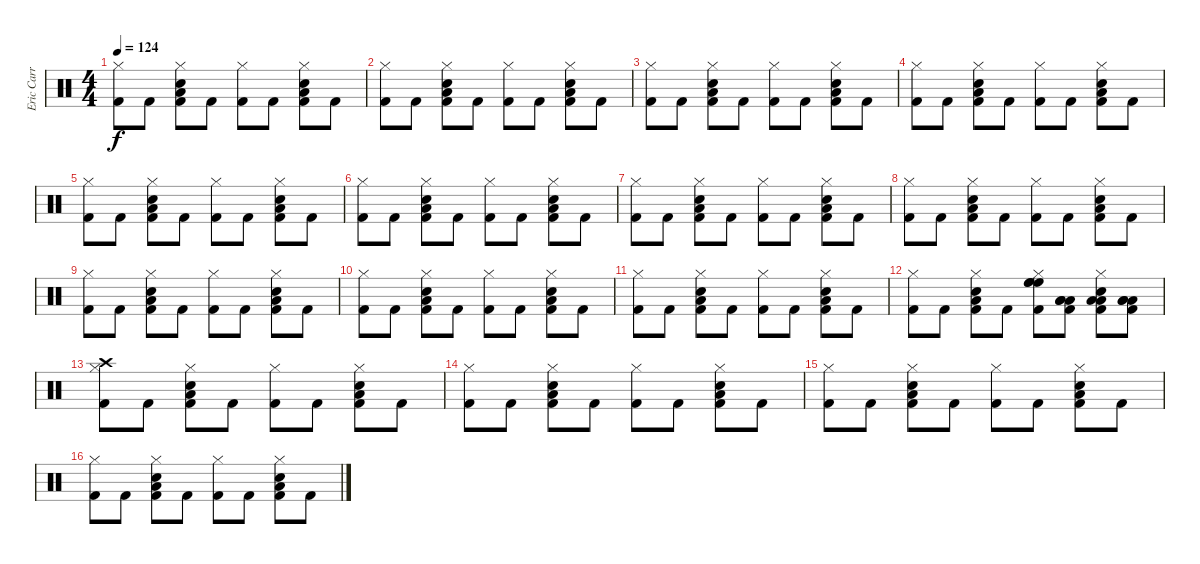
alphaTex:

\track ("Eric Carr" "Eric Carr") {instrument percussion}
\staff {score}
\articulation defaults
\ts (4 4)
\tempo 124
\clef neutral
\ks c
("Hi-Hat (closed)" "Kick (hit) 2").8{dy f} "Kick (hit) 2".8 ("Hi-Hat (closed)" "Snare (hit) 2" "Low Floor Tom (hit)" "Kick (hit) 2").8 "Kick (hit) 2".8 ("Hi-Hat (closed)" "Kick (hit) 2").8 "Kick (hit) 2".8 ("Hi-Hat (closed)" "Snare (hit) 2" "Low Floor Tom (hit)" "Kick (hit) 2").8 "Kick (hit) 2".8 |
("Hi-Hat (closed)" "Kick (hit) 2").8 "Kick (hit) 2".8 ("Hi-Hat (closed)" "Snare (hit) 2" "Low Floor Tom (hit)" "Kick (hit) 2").8 "Kick (hit) 2".8 ("Hi-Hat (closed)" "Kick (hit) 2").8 "Kick (hit) 2".8 ("Hi-Hat (closed)" "Snare (hit) 2" "Low Floor Tom (hit)" "Kick (hit) 2").8 "Kick (hit) 2".8 |
("Hi-Hat (closed)" "Kick (hit) 2").8 "Kick (hit) 2".8 ("Hi-Hat (closed)" "Snare (hit) 2" "Low Floor Tom (hit)" "Kick (hit) 2").8 "Kick (hit) 2".8 ("Hi-Hat (closed)" "Kick (hit) 2").8 "Kick (hit) 2".8 ("Hi-Hat (closed)" "Snare (hit) 2" "Low Floor Tom (hit)" "Kick (hit) 2").8 "Kick (hit) 2".8 |
("Hi-Hat (closed)" "Kick (hit) 2").8 "Kick (hit) 2".8 ("Hi-Hat (closed)" "Snare (hit) 2" "Low Floor Tom (hit)" "Kick (hit) 2").8 "Kick (hit) 2".8 ("Hi-Hat (closed)" "Kick (hit) 2").8 "Kick (hit) 2".8 ("Hi-Hat (closed)" "Snare (hit) 2" "Low Floor Tom (hit)" "Kick (hit) 2").8 "Kick (hit) 2".8 |
("Hi-Hat (closed)" "Kick (hit) 2").8 "Kick (hit) 2".8 ("Hi-Hat (closed)" "Snare (hit) 2" "Low Floor Tom (hit)" "Kick (hit) 2").8 "Kick (hit) 2".8 ("Hi-Hat (closed)" "Kick (hit) 2").8 "Kick (hit) 2".8 ("Hi-Hat (closed)" "Snare (hit) 2" "Low Floor Tom (hit)" "Kick (hit) 2").8 "Kick (hit) 2".8 |
("Hi-Hat (closed)" "Kick (hit) 2").8 "Kick (hit) 2".8 ("Hi-Hat (closed)" "Snare (hit) 2" "Low Floor Tom (hit)" "Kick (hit) 2").8 "Kick (hit) 2".8 ("Hi-Hat (closed)" "Kick (hit) 2").8 "Kick (hit) 2".8 ("Hi-Hat (closed)" "Snare (hit) 2" "Low Floor Tom (hit)" "Kick (hit) 2").8 "Kick (hit) 2".8 |
("Hi-Hat (closed)" "Kick (hit) 2").8 "Kick (hit) 2".8 ("Hi-Hat (closed)" "Snare (hit) 2" "Low Floor Tom (hit)" "Kick (hit) 2").8 "Kick (hit) 2".8 ("Hi-Hat (closed)" "Kick (hit) 2").8 "Kick (hit) 2".8 ("Hi-Hat (closed)" "Snare (hit) 2" "Low Floor Tom (hit)" "Kick (hit) 2").8 "Kick (hit) 2".8 |
("Hi-Hat (closed)" "Kick (hit) 2").8 "Kick (hit) 2".8 ("Hi-Hat (closed)" "Snare (hit) 2" "Low Floor Tom (hit)" "Kick (hit) 2").8 "Kick (hit) 2".8 ("Hi-Hat (closed)" "Kick (hit) 2").8 "Kick (hit) 2".8 ("Hi-Hat (closed)" "Snare (hit) 2" "Low Floor Tom (hit)" "Kick (hit) 2").8 "Kick (hit) 2".8 |
("Hi-Hat (closed)" "Kick (hit) 2").8 "Kick (hit) 2".8 ("Hi-Hat (closed)" "Snare (hit) 2" "Low Floor Tom (hit)" "Kick (hit) 2").8 "Kick (hit) 2".8 ("Hi-Hat (closed)" "Kick (hit) 2").8 "Kick (hit) 2".8 ("Hi-Hat (closed)" "Snare (hit) 2" "Low Floor Tom (hit)" "Kick (hit) 2").8 "Kick (hit) 2".8 |
("Hi-Hat (closed)" "Kick (hit) 2").8 "Kick (hit) 2".8 ("Hi-Hat (closed)" "Snare (hit) 2" "Low Floor Tom (hit)" "Kick (hit) 2").8 "Kick (hit) 2".8 ("Hi-Hat (closed)" "Kick (hit) 2").8 "Kick (hit) 2".8 ("Hi-Hat (closed)" "Snare (hit) 2" "Low Floor Tom (hit)" "Kick (hit) 2").8 "Kick (hit) 2".8 |
("Hi-Hat (closed)" "Kick (hit) 2").8 "Kick (hit) 2".8 ("Hi-Hat (closed)" "Snare (hit) 2" "Low Floor Tom (hit)" "Kick (hit) 2").8 "Kick (hit) 2".8 ("Hi-Hat (closed)" "Kick (hit) 2").8 "Kick (hit) 2".8 ("Hi-Hat (closed)" "Snare (hit) 2" "Low Floor Tom (hit)" "Kick (hit) 2").8 "Kick (hit) 2".8 |
("Hi-Hat (closed)" "Kick (hit) 2").8 "Kick (hit) 2".8 ("Hi-Hat (closed)" "Snare (hit) 2" "Low Floor Tom (hit)" "Kick (hit) 2").8 "Kick (hit) 2".8 ("Hi-Hat (closed)" "High Floor Tom (hit)" "High Floor Tom (hit)" "High Floor Tom (hit)" "Kick (hit) 2").8 ("Low Tom (hit)" "Low Tom (hit)" "Low Tom (hit)" "Kick (hit) 2").8 ("Hi-Hat (closed)" "Low Floor Tom (hit)" "Snare (hit) 2" "Low Floor Tom (hit)" "Kick (hit) 2").8 ("Low Floor Tom (hit)" "Low Floor Tom (hit)" "Low Floor Tom (hit)" "Kick (hit) 2").8 |
("Hi-Hat (closed)" "Crash high (hit)" "Kick (hit) 2").8 "Kick (hit) 2".8 ("Hi-Hat (closed)" "Snare (hit) 2" "Low Floor Tom (hit)" "Kick (hit) 2").8 "Kick (hit) 2".8 ("Hi-Hat (closed)" "Kick (hit) 2").8 "Kick (hit) 2".8 ("Hi-Hat (closed)" "Snare (hit) 2" "Low Floor Tom (hit)" "Kick (hit) 2").8 "Kick (hit) 2".8 |
("Hi-Hat (closed)" "Kick (hit) 2").8 "Kick (hit) 2".8 ("Hi-Hat (closed)" "Snare (hit) 2" "Low Floor Tom (hit)" "Kick (hit) 2").8 "Kick (hit) 2".8 ("Hi-Hat (closed)" "Kick (hit) 2").8 "Kick (hit) 2".8 ("Hi-Hat (closed)" "Snare (hit) 2" "Low Floor Tom (hit)" "Kick (hit) 2").8 "Kick (hit) 2".8 |
("Hi-Hat (closed)" "Kick (hit) 2").8 "Kick (hit) 2".8 ("Hi-Hat (closed)" "Snare (hit) 2" "Low Floor Tom (hit)" "Kick (hit) 2").8 "Kick (hit) 2".8 ("Hi-Hat (closed)" "Kick (hit) 2").8 "Kick (hit) 2".8 ("Hi-Hat (closed)" "Snare (hit) 2" "Low Floor Tom (hit)" "Kick (hit) 2").8 "Kick (hit) 2".8 |
("Hi-Hat (closed)" "Kick (hit) 2").8 "Kick (hit) 2".8 ("Hi-Hat (closed)" "Snare (hit) 2" "Low Floor Tom (hit)" "Kick (hit) 2").8 "Kick (hit) 2".8 ("Hi-Hat (closed)" "Kick (hit) 2").8 "Kick (hit) 2".8 ("Hi-Hat (closed)" "Snare (hit) 2" "Low Floor Tom (hit)" "Kick (hit) 2").8 "Kick (hit) 2".8
